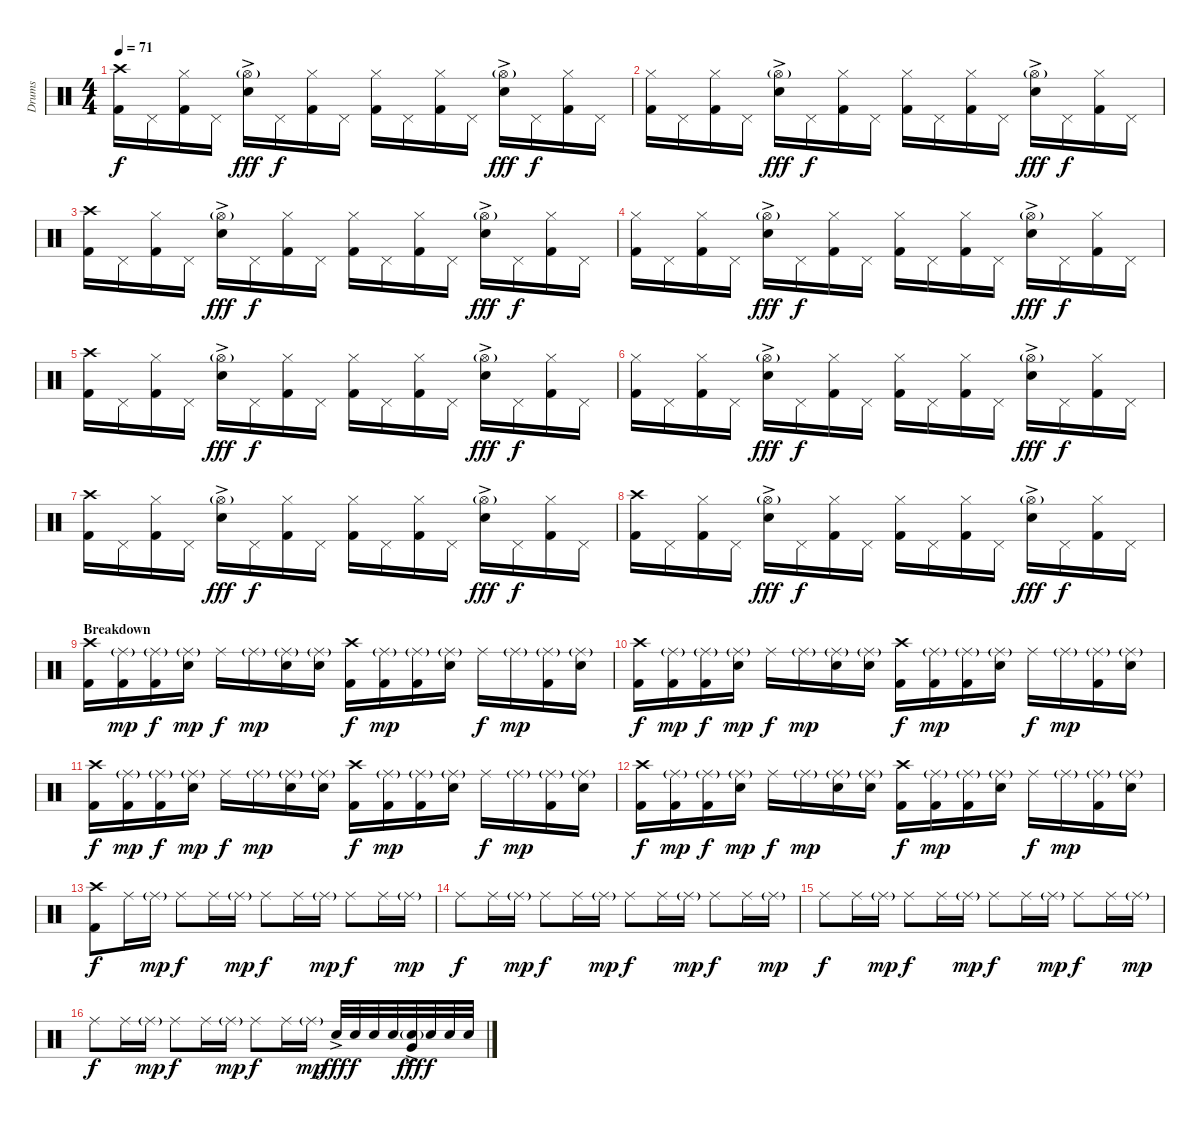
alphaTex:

\track ("Drums" "Drums") {instrument percussion}
\staff {score}
\articulation defaults
\ts (4 4)
\tempo 71
\clef neutral
\ks c
("Crash high (hit)" "Kick (hit) 2").16{dy f} "Pedal Hi-Hat (hit)".16 ("Hi-Hat (closed)" "Kick (hit) 2").16 "Pedal Hi-Hat (hit)".16 ("Hi-Hat (open)"{g} "Snare (hit) 2"{ac}).16{dy fff} "Pedal Hi-Hat (hit)".16{dy f} ("Hi-Hat (closed)" "Kick (hit) 2").16 "Pedal Hi-Hat (hit)".16 ("Hi-Hat (closed)" "Kick (hit) 2").16 "Pedal Hi-Hat (hit)".16 ("Hi-Hat (closed)" "Kick (hit) 2").16 "Pedal Hi-Hat (hit)".16 ("Hi-Hat (open)"{g} "Snare (hit) 2"{ac}).16{dy fff} "Pedal Hi-Hat (hit)".16{dy f} ("Hi-Hat (closed)" "Kick (hit) 2").16 "Pedal Hi-Hat (hit)".16 |
("Hi-Hat (closed)" "Kick (hit) 2").16 "Pedal Hi-Hat (hit)".16 ("Hi-Hat (closed)" "Kick (hit) 2").16 "Pedal Hi-Hat (hit)".16 ("Hi-Hat (open)"{g} "Snare (hit) 2"{ac}).16{dy fff} "Pedal Hi-Hat (hit)".16{dy f} ("Hi-Hat (closed)" "Kick (hit) 2").16 "Pedal Hi-Hat (hit)".16 ("Hi-Hat (closed)" "Kick (hit) 2").16 "Pedal Hi-Hat (hit)".16 ("Hi-Hat (closed)" "Kick (hit) 2").16 "Pedal Hi-Hat (hit)".16 ("Hi-Hat (open)"{g} "Snare (hit) 2"{ac}).16{dy fff} "Pedal Hi-Hat (hit)".16{dy f} ("Hi-Hat (closed)" "Kick (hit) 2").16 "Pedal Hi-Hat (hit)".16 |
("Crash high (hit)" "Kick (hit) 2").16 "Pedal Hi-Hat (hit)".16 ("Hi-Hat (closed)" "Kick (hit) 2").16 "Pedal Hi-Hat (hit)".16 ("Hi-Hat (open)"{g} "Snare (hit) 2"{ac}).16{dy fff} "Pedal Hi-Hat (hit)".16{dy f} ("Hi-Hat (closed)" "Kick (hit) 2").16 "Pedal Hi-Hat (hit)".16 ("Hi-Hat (closed)" "Kick (hit) 2").16 "Pedal Hi-Hat (hit)".16 ("Hi-Hat (closed)" "Kick (hit) 2").16 "Pedal Hi-Hat (hit)".16 ("Hi-Hat (open)"{g} "Snare (hit) 2"{ac}).16{dy fff} "Pedal Hi-Hat (hit)".16{dy f} ("Hi-Hat (closed)" "Kick (hit) 2").16 "Pedal Hi-Hat (hit)".16 |
("Hi-Hat (closed)" "Kick (hit) 2").16 "Pedal Hi-Hat (hit)".16 ("Hi-Hat (closed)" "Kick (hit) 2").16 "Pedal Hi-Hat (hit)".16 ("Hi-Hat (open)"{g} "Snare (hit) 2"{ac}).16{dy fff} "Pedal Hi-Hat (hit)".16{dy f} ("Hi-Hat (closed)" "Kick (hit) 2").16 "Pedal Hi-Hat (hit)".16 ("Hi-Hat (closed)" "Kick (hit) 2").16 "Pedal Hi-Hat (hit)".16 ("Hi-Hat (closed)" "Kick (hit) 2").16 "Pedal Hi-Hat (hit)".16 ("Hi-Hat (open)"{g} "Snare (hit) 2"{ac}).16{dy fff} "Pedal Hi-Hat (hit)".16{dy f} ("Hi-Hat (closed)" "Kick (hit) 2").16 "Pedal Hi-Hat (hit)".16 |
("Crash high (hit)" "Kick (hit) 2").16 "Pedal Hi-Hat (hit)".16 ("Hi-Hat (closed)" "Kick (hit) 2").16 "Pedal Hi-Hat (hit)".16 ("Hi-Hat (open)"{g} "Snare (hit) 2"{ac}).16{dy fff} "Pedal Hi-Hat (hit)".16{dy f} ("Hi-Hat (closed)" "Kick (hit) 2").16 "Pedal Hi-Hat (hit)".16 ("Hi-Hat (closed)" "Kick (hit) 2").16 "Pedal Hi-Hat (hit)".16 ("Hi-Hat (closed)" "Kick (hit) 2").16 "Pedal Hi-Hat (hit)".16 ("Hi-Hat (open)"{g} "Snare (hit) 2"{ac}).16{dy fff} "Pedal Hi-Hat (hit)".16{dy f} ("Hi-Hat (closed)" "Kick (hit) 2").16 "Pedal Hi-Hat (hit)".16 |
("Hi-Hat (closed)" "Kick (hit) 2").16 "Pedal Hi-Hat (hit)".16 ("Hi-Hat (closed)" "Kick (hit) 2").16 "Pedal Hi-Hat (hit)".16 ("Hi-Hat (open)"{g} "Snare (hit) 2"{ac}).16{dy fff} "Pedal Hi-Hat (hit)".16{dy f} ("Hi-Hat (closed)" "Kick (hit) 2").16 "Pedal Hi-Hat (hit)".16 ("Hi-Hat (closed)" "Kick (hit) 2").16 "Pedal Hi-Hat (hit)".16 ("Hi-Hat (closed)" "Kick (hit) 2").16 "Pedal Hi-Hat (hit)".16 ("Hi-Hat (open)"{g} "Snare (hit) 2"{ac}).16{dy fff} "Pedal Hi-Hat (hit)".16{dy f} ("Hi-Hat (closed)" "Kick (hit) 2").16 "Pedal Hi-Hat (hit)".16 |
("Crash high (hit)" "Kick (hit) 2").16 "Pedal Hi-Hat (hit)".16 ("Hi-Hat (closed)" "Kick (hit) 2").16 "Pedal Hi-Hat (hit)".16 ("Hi-Hat (open)"{g} "Snare (hit) 2"{ac}).16{dy fff} "Pedal Hi-Hat (hit)".16{dy f} ("Hi-Hat (closed)" "Kick (hit) 2").16 "Pedal Hi-Hat (hit)".16 ("Hi-Hat (closed)" "Kick (hit) 2").16 "Pedal Hi-Hat (hit)".16 ("Hi-Hat (closed)" "Kick (hit) 2").16 "Pedal Hi-Hat (hit)".16 ("Hi-Hat (open)"{g} "Snare (hit) 2"{ac}).16{dy fff} "Pedal Hi-Hat (hit)".16{dy f} ("Hi-Hat (closed)" "Kick (hit) 2").16 "Pedal Hi-Hat (hit)".16 |
("Crash high (hit)" "Kick (hit) 2").16 "Pedal Hi-Hat (hit)".16 ("Hi-Hat (closed)" "Kick (hit) 2").16 "Pedal Hi-Hat (hit)".16 ("Hi-Hat (open)"{g} "Snare (hit) 2"{ac}).16{dy fff} "Pedal Hi-Hat (hit)".16{dy f} ("Hi-Hat (closed)" "Kick (hit) 2").16 "Pedal Hi-Hat (hit)".16 ("Hi-Hat (closed)" "Kick (hit) 2").16 "Pedal Hi-Hat (hit)".16 ("Hi-Hat (closed)" "Kick (hit) 2").16 "Pedal Hi-Hat (hit)".16 ("Hi-Hat (open)"{g} "Snare (hit) 2"{ac}).16{dy fff} "Pedal Hi-Hat (hit)".16{dy f} ("Hi-Hat (closed)" "Kick (hit) 2").16 "Pedal Hi-Hat (hit)".16 |
\section ("" "Breakdown")
("Crash high (hit)" "Kick (hit) 2").16 ("Ride (middle)"{g} "Kick (hit) 2").16{dy mp} ("Ride (middle)"{g} "Kick (hit) 2").16{dy f} ("Ride (middle)"{g} "Electric Snare (hit)").16{dy mp} "Ride (middle)".16{dy f} "Ride (middle)"{g}.16{dy mp} ("Ride (middle)"{g} "Electric Snare (hit)").16 ("Ride (middle)"{g} "Electric Snare (hit)").16 ("Crash high (hit)" "Kick (hit) 2").16{dy f} ("Ride (middle)"{g} "Kick (hit) 2").16{dy mp} ("Ride (middle)"{g} "Kick (hit) 2").16 ("Ride (middle)"{g} "Electric Snare (hit)").16 "Ride (middle)".16{dy f} "Ride (middle)"{g}.16{dy mp} ("Ride (middle)"{g} "Kick (hit) 2").16 ("Ride (middle)"{g} "Electric Snare (hit)").16 |
("Crash high (hit)" "Kick (hit) 2").16{dy f} ("Ride (middle)"{g} "Kick (hit) 2").16{dy mp} ("Ride (middle)"{g} "Kick (hit) 2").16{dy f} ("Ride (middle)"{g} "Electric Snare (hit)").16{dy mp} "Ride (middle)".16{dy f} "Ride (middle)"{g}.16{dy mp} ("Ride (middle)"{g} "Electric Snare (hit)").16 ("Ride (middle)"{g} "Electric Snare (hit)").16 ("Crash high (hit)" "Kick (hit) 2").16{dy f} ("Ride (middle)"{g} "Kick (hit) 2").16{dy mp} ("Ride (middle)"{g} "Kick (hit) 2").16 ("Ride (middle)"{g} "Electric Snare (hit)").16 "Ride (middle)".16{dy f} "Ride (middle)"{g}.16{dy mp} ("Ride (middle)"{g} "Kick (hit) 2").16 ("Ride (middle)"{g} "Electric Snare (hit)").16 |
("Crash high (hit)" "Kick (hit) 2").16{dy f} ("Ride (middle)"{g} "Kick (hit) 2").16{dy mp} ("Ride (middle)"{g} "Kick (hit) 2").16{dy f} ("Ride (middle)"{g} "Electric Snare (hit)").16{dy mp} "Ride (middle)".16{dy f} "Ride (middle)"{g}.16{dy mp} ("Ride (middle)"{g} "Electric Snare (hit)").16 ("Ride (middle)"{g} "Electric Snare (hit)").16 ("Crash high (hit)" "Kick (hit) 2").16{dy f} ("Ride (middle)"{g} "Kick (hit) 2").16{dy mp} ("Ride (middle)"{g} "Kick (hit) 2").16 ("Ride (middle)"{g} "Electric Snare (hit)").16 "Ride (middle)".16{dy f} "Ride (middle)"{g}.16{dy mp} ("Ride (middle)"{g} "Kick (hit) 2").16 ("Ride (middle)"{g} "Electric Snare (hit)").16 |
("Crash high (hit)" "Kick (hit) 2").16{dy f} ("Ride (middle)"{g} "Kick (hit) 2").16{dy mp} ("Ride (middle)"{g} "Kick (hit) 2").16{dy f} ("Ride (middle)"{g} "Electric Snare (hit)").16{dy mp} "Ride (middle)".16{dy f} "Ride (middle)"{g}.16{dy mp} ("Ride (middle)"{g} "Electric Snare (hit)").16 ("Ride (middle)"{g} "Electric Snare (hit)").16 ("Crash high (hit)" "Kick (hit) 2").16{dy f} ("Ride (middle)"{g} "Kick (hit) 2").16{dy mp} ("Ride (middle)"{g} "Kick (hit) 2").16 ("Ride (middle)"{g} "Electric Snare (hit)").16 "Ride (middle)".16{dy f} "Ride (middle)"{g}.16{dy mp} ("Ride (middle)"{g} "Kick (hit) 2").16 ("Ride (middle)"{g} "Electric Snare (hit)").16 |
("Crash high (hit)" "Kick (hit) 2").8{dy f} "Ride (middle)".16 "Ride (middle)"{g}.16{dy mp} "Ride (middle)".8{dy f} "Ride (middle)".16 "Ride (middle)"{g}.16{dy mp} "Ride (middle)".8{dy f} "Ride (middle)".16 "Ride (middle)"{g}.16{dy mp} "Ride (middle)".8{dy f} "Ride (middle)".16 "Ride (middle)"{g}.16{dy mp} |
"Ride (middle)".8{dy f} "Ride (middle)".16 "Ride (middle)"{g}.16{dy mp} "Ride (middle)".8{dy f} "Ride (middle)".16 "Ride (middle)"{g}.16{dy mp} "Ride (middle)".8{dy f} "Ride (middle)".16 "Ride (middle)"{g}.16{dy mp} "Ride (middle)".8{dy f} "Ride (middle)".16 "Ride (middle)"{g}.16{dy mp} |
"Ride (middle)".8{dy f} "Ride (middle)".16 "Ride (middle)"{g}.16{dy mp} "Ride (middle)".8{dy f} "Ride (middle)".16 "Ride (middle)"{g}.16{dy mp} "Ride (middle)".8{dy f} "Ride (middle)".16 "Ride (middle)"{g}.16{dy mp} "Ride (middle)".8{dy f} "Ride (middle)".16 "Ride (middle)"{g}.16{dy mp} |
"Ride (middle)".8{dy f} "Ride (middle)".16 "Ride (middle)"{g}.16{dy mp} "Ride (middle)".8{dy f} "Ride (middle)".16 "Ride (middle)"{g}.16{dy mp} "Ride (middle)".8{dy f} "Ride (middle)".16 "Ride (middle)"{g}.16{dy mp} "Electric Snare (hit)"{ac}.32{dy fff} "Electric Snare (hit)".32{dy f} "Electric Snare (hit)".32 "Electric Snare (hit)".32 ("Electric Snare (hit)"{g} "Very Low Tom (hit)"{ac}).32{dy fff} "Electric Snare (hit)".32{dy f} "Electric Snare (hit)".32 "Electric Snare (hit)".32
